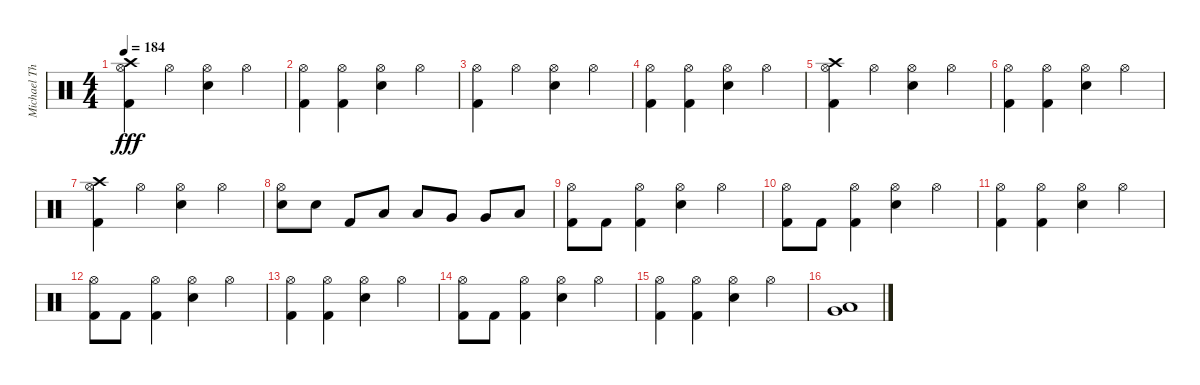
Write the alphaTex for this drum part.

\track ("Michael Thomas - Drums" "Michael Th") {instrument percussion}
\staff {score}
\articulation defaults
\ts (4 4)
\tempo 184
\clef neutral
\ks c
("Crash high (hit)" "Hi-Hat (open)" "Kick (hit) 2").4{dy fff} "Hi-Hat (open)".4 ("Hi-Hat (open)" "Snare (hit) 2").4 "Hi-Hat (open)".4 |
("Hi-Hat (open)" "Kick (hit) 2").4 ("Hi-Hat (open)" "Kick (hit) 2").4 ("Hi-Hat (open)" "Snare (hit) 2").4 "Hi-Hat (open)".4 |
("Hi-Hat (open)" "Kick (hit) 2").4 "Hi-Hat (open)".4 ("Hi-Hat (open)" "Snare (hit) 2").4 "Hi-Hat (open)".4 |
("Hi-Hat (open)" "Kick (hit) 2").4 ("Hi-Hat (open)" "Kick (hit) 2").4 ("Hi-Hat (open)" "Snare (hit) 2").4 "Hi-Hat (open)".4 |
("Crash high (hit)" "Hi-Hat (open)" "Kick (hit) 2").4 "Hi-Hat (open)".4 ("Hi-Hat (open)" "Snare (hit) 2").4 "Hi-Hat (open)".4 |
("Hi-Hat (open)" "Kick (hit) 2").4 ("Hi-Hat (open)" "Kick (hit) 2").4 ("Hi-Hat (open)" "Snare (hit) 2").4 "Hi-Hat (open)".4 |
("Crash high (hit)" "Hi-Hat (open)" "Kick (hit) 2").4 "Hi-Hat (open)".4 ("Hi-Hat (open)" "Snare (hit) 2").4 "Hi-Hat (open)".4 |
("Hi-Hat (open)" "Snare (hit) 2").8 "Snare (hit) 2".8 "Kick (hit) 2".8 "Low Tom (hit)".8 "Low Tom (hit)".8 "Very Low Tom (hit)".8 "Very Low Tom (hit)".8 "Low Floor Tom (hit)".8 |
("Hi-Hat (open)" "Kick (hit) 2").8 "Kick (hit) 2".8 ("Hi-Hat (open)" "Kick (hit) 2").4 ("Hi-Hat (open)" "Snare (hit) 2").4 "Hi-Hat (open)".4 |
("Hi-Hat (open)" "Kick (hit) 2").8 "Kick (hit) 2".8 ("Hi-Hat (open)" "Kick (hit) 2").4 ("Hi-Hat (open)" "Snare (hit) 2").4 "Hi-Hat (open)".4 |
("Hi-Hat (open)" "Kick (hit) 2").4 ("Hi-Hat (open)" "Kick (hit) 2").4 ("Hi-Hat (open)" "Snare (hit) 2").4 "Hi-Hat (open)".4 |
("Hi-Hat (open)" "Kick (hit) 2").8 "Kick (hit) 2".8 ("Hi-Hat (open)" "Kick (hit) 2").4 ("Hi-Hat (open)" "Snare (hit) 2").4 "Hi-Hat (open)".4 |
("Hi-Hat (open)" "Kick (hit) 2").4 ("Hi-Hat (open)" "Kick (hit) 2").4 ("Hi-Hat (open)" "Snare (hit) 2").4 "Hi-Hat (open)".4 |
("Hi-Hat (open)" "Kick (hit) 2").8 "Kick (hit) 2".8 ("Hi-Hat (open)" "Kick (hit) 2").4 ("Hi-Hat (open)" "Snare (hit) 2").4 "Hi-Hat (open)".4 |
("Hi-Hat (open)" "Kick (hit) 2").4 ("Hi-Hat (open)" "Kick (hit) 2").4 ("Hi-Hat (open)" "Snare (hit) 2").4 "Hi-Hat (open)".4 |
("Very Low Tom (hit)" "Low Floor Tom (hit)").1
